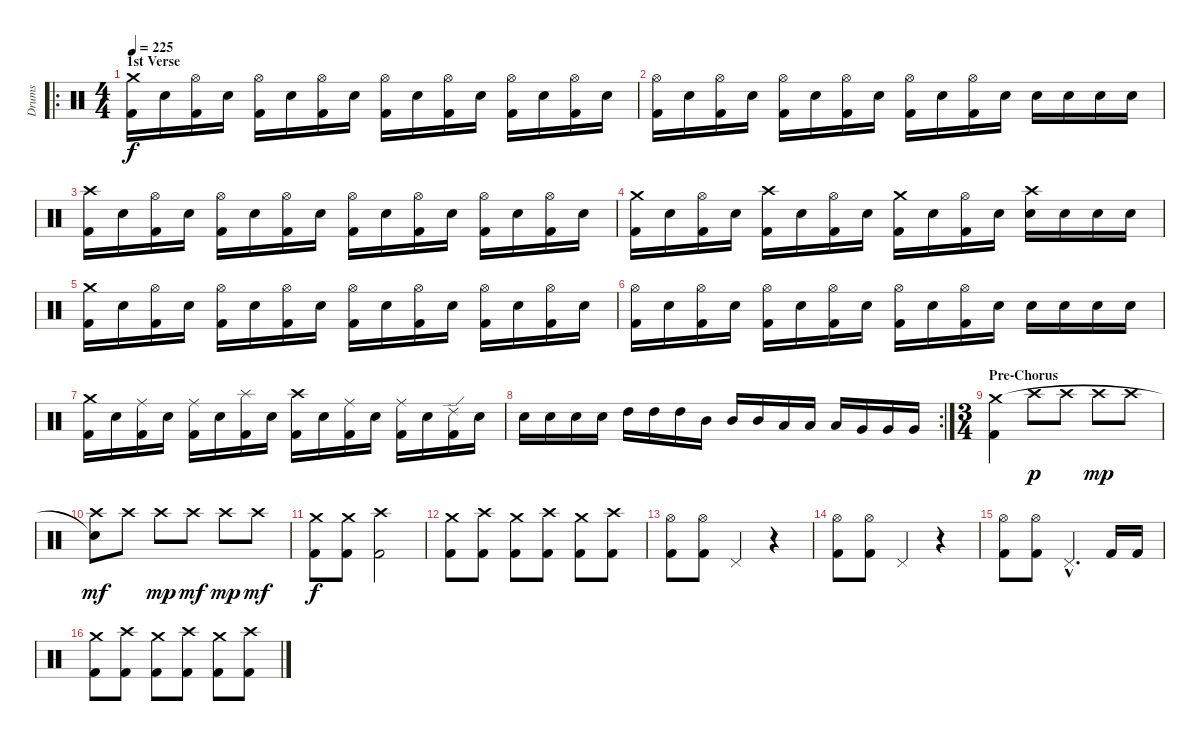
\track ("Drums" "Drums") {instrument percussion}
\staff {score}
\articulation defaults
\ro
\ts (4 4)
\section ("" "1st Verse")
\tempo 225
\clef neutral
\ks c
("Kick (hit) 2" "Crash medium (hit)").16{dy f} "Electric Snare (hit)".16 ("Kick (hit) 2" "Hi-Hat (open)").16 "Electric Snare (hit)".16 ("Kick (hit) 2" "Hi-Hat (open)").16 "Electric Snare (hit)".16 ("Kick (hit) 2" "Hi-Hat (open)").16 "Electric Snare (hit)".16 ("Kick (hit) 2" "Hi-Hat (open)").16 "Electric Snare (hit)".16 ("Kick (hit) 2" "Hi-Hat (open)").16 "Electric Snare (hit)".16 ("Kick (hit) 2" "Hi-Hat (open)").16 "Electric Snare (hit)".16 ("Kick (hit) 2" "Hi-Hat (open)").16 "Electric Snare (hit)".16 |
("Kick (hit) 2" "Hi-Hat (open)").16 "Electric Snare (hit)".16 ("Kick (hit) 2" "Hi-Hat (open)").16 "Electric Snare (hit)".16 ("Kick (hit) 2" "Hi-Hat (open)").16 "Electric Snare (hit)".16 ("Kick (hit) 2" "Hi-Hat (open)").16 "Electric Snare (hit)".16 ("Kick (hit) 2" "Hi-Hat (open)").16 "Electric Snare (hit)".16 ("Kick (hit) 2" "Hi-Hat (open)").16 "Electric Snare (hit)".16 "Electric Snare (hit)".16 "Electric Snare (hit)".16 "Electric Snare (hit)".16 "Electric Snare (hit)".16 |
("Kick (hit) 2" "Crash high (hit)").16 "Electric Snare (hit)".16 ("Kick (hit) 2" "Hi-Hat (open)").16 "Electric Snare (hit)".16 ("Kick (hit) 2" "Hi-Hat (open)").16 "Electric Snare (hit)".16 ("Kick (hit) 2" "Hi-Hat (open)").16 "Electric Snare (hit)".16 ("Kick (hit) 2" "Hi-Hat (open)").16 "Electric Snare (hit)".16 ("Kick (hit) 2" "Hi-Hat (open)").16 "Electric Snare (hit)".16 ("Kick (hit) 2" "Hi-Hat (open)").16 "Electric Snare (hit)".16 ("Kick (hit) 2" "Hi-Hat (open)").16 "Electric Snare (hit)".16 |
("Kick (hit) 2" "Crash medium (hit)").16 "Electric Snare (hit)".16 ("Kick (hit) 2" "Hi-Hat (open)").16 "Electric Snare (hit)".16 ("Kick (hit) 2" "Crash high (hit)").16 "Electric Snare (hit)".16 ("Kick (hit) 2" "Hi-Hat (open)").16 "Electric Snare (hit)".16 ("Kick (hit) 2" "Crash medium (hit)").16 "Electric Snare (hit)".16 ("Kick (hit) 2" "Hi-Hat (open)").16 "Electric Snare (hit)".16 ("Electric Snare (hit)" "Crash high (hit)").16 "Electric Snare (hit)".16 "Electric Snare (hit)".16 "Electric Snare (hit)".16 |
("Kick (hit) 2" "Crash medium (hit)").16 "Electric Snare (hit)".16 ("Kick (hit) 2" "Hi-Hat (open)").16 "Electric Snare (hit)".16 ("Kick (hit) 2" "Hi-Hat (open)").16 "Electric Snare (hit)".16 ("Kick (hit) 2" "Hi-Hat (open)").16 "Electric Snare (hit)".16 ("Kick (hit) 2" "Hi-Hat (open)").16 "Electric Snare (hit)".16 ("Kick (hit) 2" "Hi-Hat (open)").16 "Electric Snare (hit)".16 ("Kick (hit) 2" "Hi-Hat (open)").16 "Electric Snare (hit)".16 ("Kick (hit) 2" "Hi-Hat (open)").16 "Electric Snare (hit)".16 |
("Kick (hit) 2" "Hi-Hat (open)").16 "Electric Snare (hit)".16 ("Kick (hit) 2" "Hi-Hat (open)").16 "Electric Snare (hit)".16 ("Kick (hit) 2" "Hi-Hat (open)").16 "Electric Snare (hit)".16 ("Kick (hit) 2" "Hi-Hat (open)").16 "Electric Snare (hit)".16 ("Kick (hit) 2" "Hi-Hat (open)").16 "Electric Snare (hit)".16 ("Kick (hit) 2" "Hi-Hat (open)").16 "Electric Snare (hit)".16 "Electric Snare (hit)".16 "Electric Snare (hit)".16 "Electric Snare (hit)".16 "Electric Snare (hit)".16 |
("Kick (hit) 2" "Crash medium (hit)").16 "Electric Snare (hit)".16 ("Kick (hit) 2" "Ride (middle)").16 "Electric Snare (hit)".16 ("Kick (hit) 2" "Ride (middle)").16 "Electric Snare (hit)".16 ("Kick (hit) 2" "Splash (hit)").16 "Electric Snare (hit)".16 ("Kick (hit) 2" "Crash high (hit)").16 "Electric Snare (hit)".16 ("Kick (hit) 2" "Ride (middle)").16 "Electric Snare (hit)".16 ("Kick (hit) 2" "Ride (middle)").16 "Electric Snare (hit)".16 ("Kick (hit) 2" "Ride (edge) 2").16 "Electric Snare (hit)".16 |
\rc 2 "Electric Snare (hit)".16 "Electric Snare (hit)".16 "Electric Snare (hit)".16 "Electric Snare (hit)".16 "High Tom (hit)".16 "High Tom (hit)".16 "High Tom (hit)".16 "Mid Tom (hit)".16 "Mid Tom (hit)".16 "Mid Tom (hit)".16 "Low Tom (hit)".16 "Low Tom (hit)".16 "Low Tom (hit)".16 "Very Low Tom (hit)".16 "Very Low Tom (hit)".16 "Very Low Tom (hit)".16
|
\ts (3 4)
\section ("" "Pre-Chorus")
("Kick (hit) 2" "Crash medium (hit)").4 "Crash high (hit)".8{dy p} "Crash high (hit)".8 "Crash high (hit)".8{dy mp} "Crash high (hit)".8 |
("Crash high (hit)" "Snare (hit)"{t}).8{dy mf} "Crash high (hit)".8 "Crash high (hit)".8{dy mp} "Crash high (hit)".8{dy mf} "Crash high (hit)".8{dy mp} "Crash high (hit)".8{dy mf} |
("Kick (hit) 2" "Crash medium (hit)").8{dy f} ("Kick (hit) 2" "Crash medium (hit)").8 ("Kick (hit) 2" "Crash high (hit)").2 |
("Kick (hit) 2" "Crash medium (hit)").8 ("Kick (hit) 2" "Crash high (hit)").8 ("Kick (hit) 2" "Crash medium (hit)").8 ("Kick (hit) 2" "Crash high (hit)").8 ("Kick (hit) 2" "Crash medium (hit)").8 ("Kick (hit) 2" "Crash high (hit)").8 |
("Kick (hit) 2" "Hi-Hat (open)").8 ("Kick (hit) 2" "Hi-Hat (open)").8 "Pedal Hi-Hat (hit)".4 r.4 |
("Kick (hit) 2" "Hi-Hat (open)").8 ("Kick (hit) 2" "Hi-Hat (open)").8 "Pedal Hi-Hat (hit)".4 r.4 |
("Kick (hit) 2" "Hi-Hat (open)").8 ("Kick (hit) 2" "Hi-Hat (open)").8 "Pedal Hi-Hat (hit)"{hac}.4{d} "Kick (hit) 2".16 "Kick (hit) 2".16 |
("Kick (hit) 2" "Crash medium (hit)").8 ("Kick (hit) 2" "Crash high (hit)").8 ("Kick (hit) 2" "Crash medium (hit)").8 ("Kick (hit) 2" "Crash high (hit)").8 ("Kick (hit) 2" "Crash medium (hit)").8 ("Kick (hit) 2" "Crash high (hit)").8
